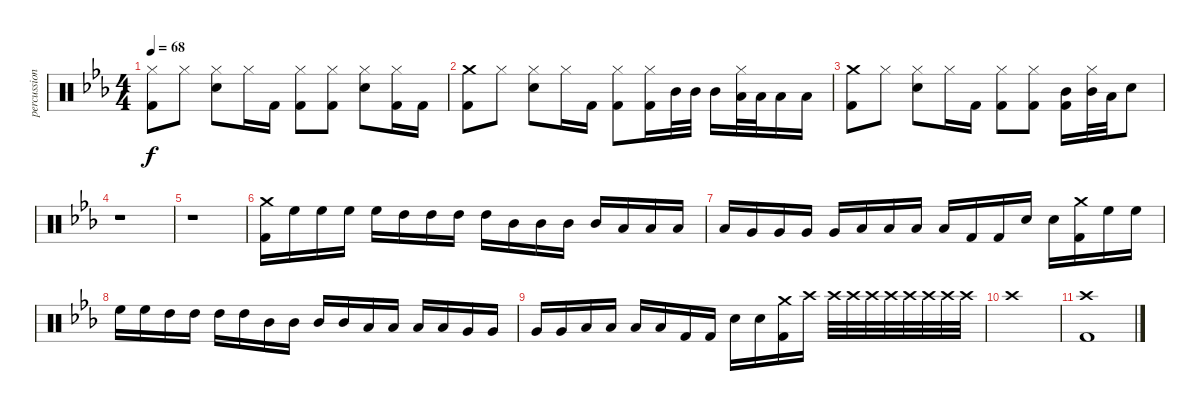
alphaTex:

\track ("percussion" "percussion") {instrument percussion}
\staff {score}
\articulation defaults
\ts (4 4)
\tempo 68
\clef neutral
\ks cminor
("Hi-Hat (closed)" "Kick (hit) 2").8{dy f} "Hi-Hat (closed)".8 ("Snare (hit) 2" "Hi-Hat (closed)").8 "Hi-Hat (closed)".16 "Kick (hit) 2".16 ("Hi-Hat (closed)" "Kick (hit) 2").8 ("Hi-Hat (closed)" "Kick (hit) 2").8 ("Snare (hit) 2" "Hi-Hat (closed)").8 ("Hi-Hat (closed)" "Kick (hit) 2").16 "Kick (hit) 2".16 |
("Crash medium (hit)" "Kick (hit) 2").8 "Hi-Hat (closed)".8 ("Snare (hit) 2" "Hi-Hat (closed)").8 "Hi-Hat (closed)".16 "Kick (hit) 2".16 ("Hi-Hat (closed)" "Kick (hit) 2").8 ("Hi-Hat (closed)" "Kick (hit) 2").16 "Mid Tom (hit)".32 "Mid Tom (hit)".32 "Mid Tom (hit)".16 ("Low Tom (hit)" "Hi-Hat (closed)").32 "Low Tom (hit)".32 "Low Tom (hit)".16 "Low Tom (hit)".16 |
("Crash medium (hit)" "Kick (hit) 2").8 "Hi-Hat (closed)".8 ("Snare (hit) 2" "Hi-Hat (closed)").8 "Hi-Hat (closed)".16 "Kick (hit) 2".16 ("Hi-Hat (closed)" "Kick (hit) 2").8 ("Hi-Hat (closed)" "Kick (hit) 2").8 ("Mid Tom (hit)" "Kick (hit) 2").16 ("Mid Tom (hit)" "Hi-Hat (closed)").32 "Low Tom (hit)".32 "Snare (hit) 2".8 |
r.1 |
r.1 |
("Crash medium (hit)" "Kick (hit) 2").16 "High Floor Tom (hit)".16 "High Floor Tom (hit)".16 "High Floor Tom (hit)".16 "High Floor Tom (hit)".16 "High Tom (hit)".16 "High Tom (hit)".16 "High Tom (hit)".16 "High Tom (hit)".16 "Mid Tom (hit)".16 "Mid Tom (hit)".16 "Mid Tom (hit)".16 "Mid Tom (hit)".16 "Low Tom (hit)".16 "Low Tom (hit)".16 "Low Tom (hit)".16 |
"Low Tom (hit)".16 "Very Low Tom (hit)".16 "Very Low Tom (hit)".16 "Very Low Tom (hit)".16 "Very Low Tom (hit)".16 "Low Floor Tom (hit)".16 "Low Floor Tom (hit)".16 "Low Floor Tom (hit)".16 "Low Floor Tom (hit)".16 "Kick (hit) 2".16 "Kick (hit) 2".16 "Snare (hit) 2".16 "Snare (hit) 2".16 ("Crash medium (hit)" "Kick (hit) 2").16 "High Floor Tom (hit)".16 "High Floor Tom (hit)".16 |
"High Floor Tom (hit)".16 "High Floor Tom (hit)".16 "High Tom (hit)".16 "High Tom (hit)".16 "High Tom (hit)".16 "High Tom (hit)".16 "Mid Tom (hit)".16 "Mid Tom (hit)".16 "Mid Tom (hit)".16 "Mid Tom (hit)".16 "Low Tom (hit)".16 "Low Tom (hit)".16 "Low Tom (hit)".16 "Low Tom (hit)".16 "Very Low Tom (hit)".16 "Very Low Tom (hit)".16 |
"Very Low Tom (hit)".16 "Very Low Tom (hit)".16 "Low Floor Tom (hit)".16 "Low Floor Tom (hit)".16 "Low Floor Tom (hit)".16 "Low Floor Tom (hit)".16 "Kick (hit) 2".16 "Kick (hit) 2".16 "Snare (hit) 2".16 "Snare (hit) 2".16 ("Crash medium (hit)" "Kick (hit) 2").16 "Crash high (hit)".16 "Crash high (hit)".32 "Crash high (hit)".32 "Crash high (hit)".32 "Crash high (hit)".32 "Crash high (hit)".32 "Crash high (hit)".32 "Crash high (hit)".32 "Crash high (hit)".32 |
"Crash high (hit)".1 |
("Crash high (hit)" "Kick (hit) 2").1
